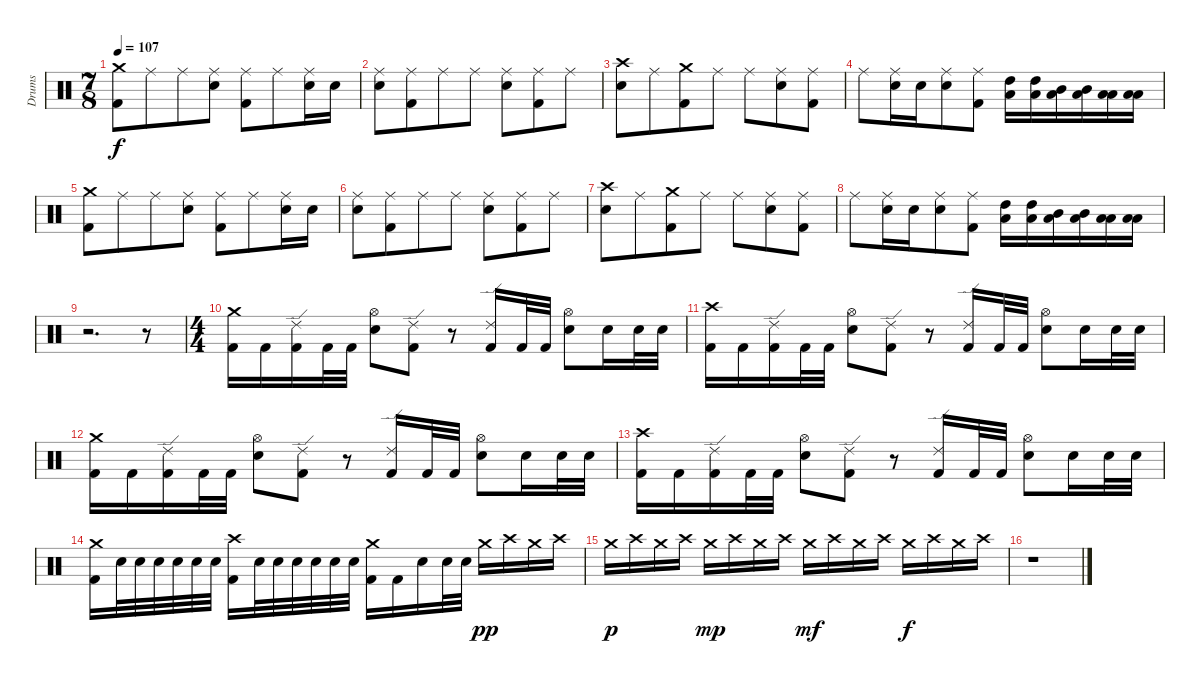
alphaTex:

\track ("Drums" "Drums") {instrument percussion}
\staff {score}
\articulation defaults
\ts (7 8)
\tempo 107
\clef neutral
\ks c
("Crash medium (hit)" "Kick (hit) 2").8{dy f} "Ride (middle)".8 "Ride (middle)".8 ("Ride (middle)" "Electric Snare (hit)").8 ("Ride (middle)" "Kick (hit) 2").8 "Ride (middle)".8 ("Ride (middle)" "Electric Snare (hit)").16 "Electric Snare (hit)".16 |
("Ride (middle)" "Snare (hit) 2").8 ("Ride (middle)" "Kick (hit) 2").8 "Ride (middle)".8 "Ride (middle)".8 ("Ride (middle)" "Electric Snare (hit)").8 ("Ride (middle)" "Kick (hit) 2").8 "Ride (middle)".8 |
("Crash high (hit)" "Snare (hit) 2").8 "Ride (middle)".8 ("Crash medium (hit)" "Kick (hit) 2").8 "Ride (middle)".8 "Ride (middle)".8 ("Ride (middle)" "Electric Snare (hit)").8 ("Ride (middle)" "Kick (hit) 2").8 |
"Ride (middle)".8 ("Ride (middle)" "Electric Snare (hit)").16 "Electric Snare (hit)".16 ("Ride (middle)" "Snare (hit) 2").8 ("Ride (middle)" "Kick (hit) 2").8 ("High Tom (hit)" "Low Floor Tom (hit)").16 ("High Tom (hit)" "Low Floor Tom (hit)").16 ("Mid Tom (hit)" "Low Floor Tom (hit)").16 ("Mid Tom (hit)" "Low Floor Tom (hit)").16 ("Low Tom (hit)" "Low Floor Tom (hit)").16 ("Low Tom (hit)" "Low Floor Tom (hit)").16 |
("Crash medium (hit)" "Kick (hit) 2").8 "Ride (middle)".8 "Ride (middle)".8 ("Ride (middle)" "Electric Snare (hit)").8 ("Ride (middle)" "Kick (hit) 2").8 "Ride (middle)".8 ("Ride (middle)" "Electric Snare (hit)").16 "Electric Snare (hit)".16 |
("Ride (middle)" "Snare (hit) 2").8 ("Ride (middle)" "Kick (hit) 2").8 "Ride (middle)".8 "Ride (middle)".8 ("Ride (middle)" "Electric Snare (hit)").8 ("Ride (middle)" "Kick (hit) 2").8 "Ride (middle)".8 |
("Crash high (hit)" "Snare (hit) 2").8 "Ride (middle)".8 ("Crash medium (hit)" "Kick (hit) 2").8 "Ride (middle)".8 "Ride (middle)".8 ("Ride (middle)" "Electric Snare (hit)").8 ("Ride (middle)" "Kick (hit) 2").8 |
"Ride (middle)".8 ("Ride (middle)" "Electric Snare (hit)").16 "Electric Snare (hit)".16 ("Ride (middle)" "Snare (hit) 2").8 ("Ride (middle)" "Kick (hit) 2").8 ("High Tom (hit)" "Low Floor Tom (hit)").16 ("High Tom (hit)" "Low Floor Tom (hit)").16 ("Mid Tom (hit)" "Low Floor Tom (hit)").16 ("Mid Tom (hit)" "Low Floor Tom (hit)").16 ("Low Tom (hit)" "Low Floor Tom (hit)").16 ("Low Tom (hit)" "Low Floor Tom (hit)").16 |
r.2{d} r.8 |
\ts (4 4)
("Crash medium (hit)" "Kick (hit) 2").16 "Kick (hit) 2".16 ("Ride (edge) 2" "Kick (hit) 2").16 "Kick (hit) 2".32 "Kick (hit) 2".32 ("Hi-Hat (open)" "Snare (hit) 2").8 ("Ride (edge) 2" "Kick (hit) 2").8 r.8 ("Ride (edge) 2" "Kick (hit) 2").16 "Kick (hit) 2".32 "Kick (hit) 2".32 ("Hi-Hat (open)" "Snare (hit) 2").8 "Electric Snare (hit)".16 "Electric Snare (hit)".32 "Electric Snare (hit)".32 |
("Crash high (hit)" "Kick (hit) 2").16 "Kick (hit) 2".16 ("Ride (edge) 2" "Kick (hit) 2").16 "Kick (hit) 2".32 "Kick (hit) 2".32 ("Hi-Hat (open)" "Snare (hit) 2").8 ("Ride (edge) 2" "Kick (hit) 2").8 r.8 ("Ride (edge) 2" "Kick (hit) 2").16 "Kick (hit) 2".32 "Kick (hit) 2".32 ("Hi-Hat (open)" "Snare (hit) 2").8 "Electric Snare (hit)".16 "Electric Snare (hit)".32 "Electric Snare (hit)".32 |
("Crash medium (hit)" "Kick (hit) 2").16 "Kick (hit) 2".16 ("Ride (edge) 2" "Kick (hit) 2").16 "Kick (hit) 2".32 "Kick (hit) 2".32 ("Hi-Hat (open)" "Snare (hit) 2").8 ("Ride (edge) 2" "Kick (hit) 2").8 r.8 ("Ride (edge) 2" "Kick (hit) 2").16 "Kick (hit) 2".32 "Kick (hit) 2".32 ("Hi-Hat (open)" "Snare (hit) 2").8 "Electric Snare (hit)".16 "Electric Snare (hit)".32 "Electric Snare (hit)".32 |
("Crash high (hit)" "Kick (hit) 2").16 "Kick (hit) 2".16 ("Ride (edge) 2" "Kick (hit) 2").16 "Kick (hit) 2".32 "Kick (hit) 2".32 ("Hi-Hat (open)" "Snare (hit) 2").8 ("Ride (edge) 2" "Kick (hit) 2").8 r.8 ("Ride (edge) 2" "Kick (hit) 2").16 "Kick (hit) 2".32 "Kick (hit) 2".32 ("Hi-Hat (open)" "Snare (hit) 2").8 "Electric Snare (hit)".16 "Electric Snare (hit)".32 "Electric Snare (hit)".32 |
("Crash medium (hit)" "Kick (hit) 2").16 "Snare (hit) 2".32 "Snare (hit) 2".32 "Snare (hit) 2".32 "Snare (hit) 2".32 "Snare (hit) 2".32 "Snare (hit) 2".32 ("Crash high (hit)" "Kick (hit) 2").16 "Electric Snare (hit)".32 "Electric Snare (hit)".32 "Electric Snare (hit)".32 "Electric Snare (hit)".32 "Electric Snare (hit)".32 "Electric Snare (hit)".32 ("Crash medium (hit)" "Kick (hit) 2").16 "Kick (hit) 2".16 "Snare (hit) 2".16 "Snare (hit) 2".32 "Snare (hit) 2".32 "Crash medium (hit)".16{dy pp} "Crash high (hit)".16 "Crash medium (hit)".16 "Crash high (hit)".16 |
"Crash medium (hit)".16{dy p} "Crash high (hit)".16 "Crash medium (hit)".16 "Crash high (hit)".16 "Crash medium (hit)".16{dy mp} "Crash high (hit)".16 "Crash medium (hit)".16 "Crash high (hit)".16 "Crash medium (hit)".16{dy mf} "Crash high (hit)".16 "Crash medium (hit)".16 "Crash high (hit)".16 "Crash medium (hit)".16{dy f} "Crash high (hit)".16 "Crash medium (hit)".16 "Crash high (hit)".16 |
r.1
